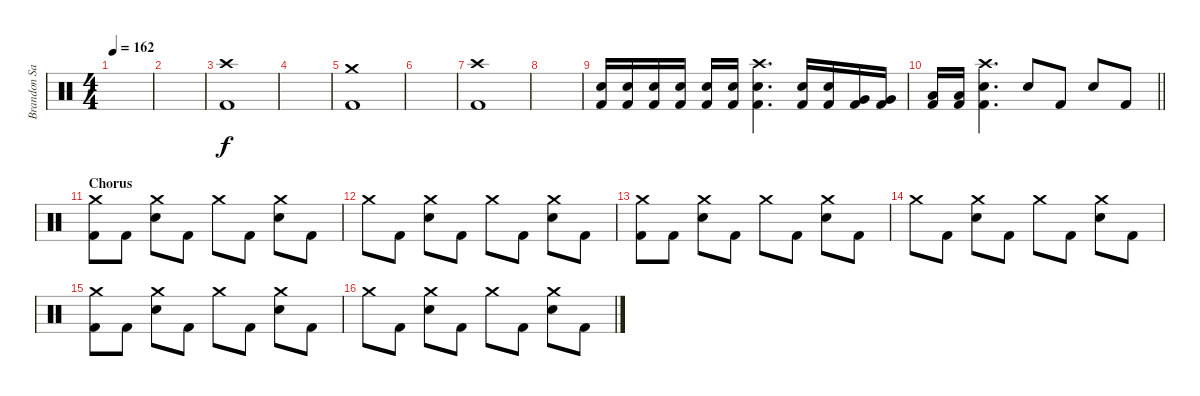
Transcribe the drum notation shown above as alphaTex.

\track ("Brandon Saller" "Brandon Sa") {instrument percussion}
\staff {score}
\articulation defaults
\ts (4 4)
\tempo 162
\clef neutral
\ks c
|
|
("Crash high (hit)" "Kick (hit) 2").1 |
|
("Crash medium (hit)" "Kick (hit) 2").1 |
|
("Crash high (hit)" "Kick (hit) 2").1 |
|
("Electric Snare (hit)" "Kick (hit) 2").16 ("Electric Snare (hit)" "Kick (hit) 2").16 ("Electric Snare (hit)" "Kick (hit) 2").16 ("Electric Snare (hit)" "Kick (hit) 2").16 ("Electric Snare (hit)" "Kick (hit) 2").16 ("Electric Snare (hit)" "Kick (hit) 2").16 ("Crash high (hit)" "Electric Snare (hit)" "Kick (hit) 2").4{d} ("Electric Snare (hit)" "Kick (hit) 2").16 ("Electric Snare (hit)" "Kick (hit) 2").16 ("Very Low Tom (hit)" "Kick (hit) 2").16 ("Very Low Tom (hit)" "Kick (hit) 2").16 |
\barLineRight lightlight
("Low Floor Tom (hit)" "Kick (hit) 2").16 ("Low Floor Tom (hit)" "Kick (hit) 2").16 ("Crash high (hit)" "Electric Snare (hit)" "Kick (hit) 2").4{d} "Electric Snare (hit)".8 "Kick (hit) 2".8 "Electric Snare (hit)".8 "Kick (hit) 2".8 |
\section ("" "Chorus")
("Crash medium (hit)" "Kick (hit) 2").8 "Kick (hit) 2".8 ("Crash medium (hit)" "Electric Snare (hit)").8 "Kick (hit) 2".8 "Crash medium (hit)".8 "Kick (hit) 2".8 ("Crash medium (hit)" "Electric Snare (hit)").8 "Kick (hit) 2".8 |
"Crash medium (hit)".8 "Kick (hit) 2".8 ("Crash medium (hit)" "Electric Snare (hit)").8 "Kick (hit) 2".8 "Crash medium (hit)".8 "Kick (hit) 2".8 ("Crash medium (hit)" "Electric Snare (hit)").8 "Kick (hit) 2".8 |
("Crash medium (hit)" "Kick (hit) 2").8 "Kick (hit) 2".8 ("Crash medium (hit)" "Electric Snare (hit)").8 "Kick (hit) 2".8 "Crash medium (hit)".8 "Kick (hit) 2".8 ("Crash medium (hit)" "Electric Snare (hit)").8 "Kick (hit) 2".8 |
"Crash medium (hit)".8 "Kick (hit) 2".8 ("Crash medium (hit)" "Electric Snare (hit)").8 "Kick (hit) 2".8 "Crash medium (hit)".8 "Kick (hit) 2".8 ("Crash medium (hit)" "Electric Snare (hit)").8 "Kick (hit) 2".8 |
("Crash medium (hit)" "Kick (hit) 2").8 "Kick (hit) 2".8 ("Crash medium (hit)" "Electric Snare (hit)").8 "Kick (hit) 2".8 "Crash medium (hit)".8 "Kick (hit) 2".8 ("Crash medium (hit)" "Electric Snare (hit)").8 "Kick (hit) 2".8 |
"Crash medium (hit)".8 "Kick (hit) 2".8 ("Crash medium (hit)" "Electric Snare (hit)").8 "Kick (hit) 2".8 "Crash medium (hit)".8 "Kick (hit) 2".8 ("Crash medium (hit)" "Electric Snare (hit)").8 "Kick (hit) 2".8
